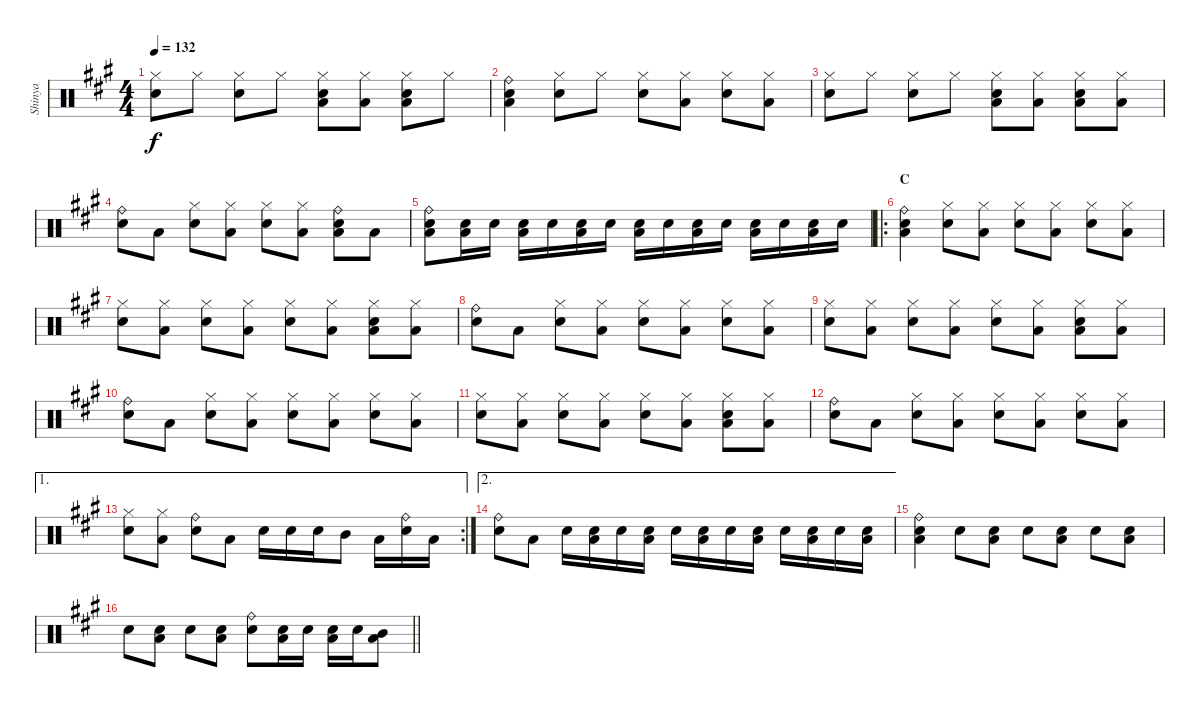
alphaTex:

\track ("Shinya" "Shinya") {instrument percussion}
\staff {score}
\articulation defaults
\ts (4 4)
\tempo 132
\clef neutral
\ks a
("Hi-Hat (closed)" "Snare (hit) 2").8{dy f} "Hi-Hat (closed)".8 ("Hi-Hat (closed)" "Snare (hit) 2").8 "Hi-Hat (closed)".8 ("Low Floor Tom (hit)" "Hi-Hat (closed)" "Snare (hit) 2").8 ("Low Floor Tom (hit)" "Hi-Hat (closed)").8 ("Low Floor Tom (hit)" "Hi-Hat (closed)" "Snare (hit) 2").8 "Hi-Hat (closed)".8 |
("Low Floor Tom (hit)" "Ride (bell)" "Snare (hit) 2").4 ("Hi-Hat (closed)" "Snare (hit) 2").8 "Hi-Hat (closed)".8 ("Hi-Hat (closed)" "Snare (hit) 2").8 ("Low Floor Tom (hit)" "Hi-Hat (closed)").8 ("Hi-Hat (closed)" "Snare (hit) 2").8 ("Low Floor Tom (hit)" "Hi-Hat (closed)").8 |
("Hi-Hat (closed)" "Snare (hit) 2").8 "Hi-Hat (closed)".8 ("Hi-Hat (closed)" "Snare (hit) 2").8 "Hi-Hat (closed)".8 ("Low Floor Tom (hit)" "Hi-Hat (closed)" "Snare (hit) 2").8 ("Low Floor Tom (hit)" "Hi-Hat (closed)").8 ("Low Floor Tom (hit)" "Hi-Hat (closed)" "Snare (hit) 2").8 ("Low Floor Tom (hit)" "Hi-Hat (closed)").8 |
("Ride (bell)" "Snare (hit) 2").8 "Low Floor Tom (hit)".8 ("Hi-Hat (closed)" "Snare (hit) 2").8 ("Low Floor Tom (hit)" "Hi-Hat (closed)").8 ("Hi-Hat (closed)" "Snare (hit) 2").8 ("Low Floor Tom (hit)" "Hi-Hat (closed)").8 ("Low Floor Tom (hit)" "Ride (bell)" "Snare (hit) 2").8 "Low Floor Tom (hit)".8 |
("Low Floor Tom (hit)" "Ride (bell)" "Snare (hit) 2").8 ("Low Floor Tom (hit)" "Snare (hit) 2").16 "Snare (hit) 2".16 ("Low Floor Tom (hit)" "Snare (hit) 2").16 "Snare (hit) 2".16 ("Low Floor Tom (hit)" "Snare (hit) 2").16 "Snare (hit) 2".16 ("Low Floor Tom (hit)" "Snare (hit) 2").16 "Snare (hit) 2".16 ("Low Floor Tom (hit)" "Snare (hit) 2").16 "Snare (hit) 2".16 ("Low Floor Tom (hit)" "Snare (hit) 2").16 "Snare (hit) 2".16 ("Low Floor Tom (hit)" "Snare (hit) 2").16 "Snare (hit) 2".16 |
\ro
\section ("" "C")
("Low Floor Tom (hit)" "Ride (bell)" "Snare (hit) 2").4 ("Hi-Hat (closed)" "Snare (hit) 2").8 ("Low Floor Tom (hit)" "Hi-Hat (closed)").8 ("Hi-Hat (closed)" "Snare (hit) 2").8 ("Low Floor Tom (hit)" "Hi-Hat (closed)").8 ("Hi-Hat (closed)" "Snare (hit) 2").8 ("Low Floor Tom (hit)" "Hi-Hat (closed)").8 |
("Hi-Hat (closed)" "Snare (hit) 2").8 ("Low Floor Tom (hit)" "Hi-Hat (closed)").8 ("Hi-Hat (closed)" "Snare (hit) 2").8 ("Low Floor Tom (hit)" "Hi-Hat (closed)").8 ("Hi-Hat (closed)" "Snare (hit) 2").8 ("Low Floor Tom (hit)" "Hi-Hat (closed)").8 ("Low Floor Tom (hit)" "Hi-Hat (closed)" "Snare (hit) 2").8 ("Low Floor Tom (hit)" "Hi-Hat (closed)").8 |
("Ride (bell)" "Snare (hit) 2").8 "Low Floor Tom (hit)".8 ("Hi-Hat (closed)" "Snare (hit) 2").8 ("Low Floor Tom (hit)" "Hi-Hat (closed)").8 ("Hi-Hat (closed)" "Snare (hit) 2").8 ("Low Floor Tom (hit)" "Hi-Hat (closed)").8 ("Hi-Hat (closed)" "Snare (hit) 2").8 ("Low Floor Tom (hit)" "Hi-Hat (closed)").8 |
("Hi-Hat (closed)" "Snare (hit) 2").8 ("Low Floor Tom (hit)" "Hi-Hat (closed)").8 ("Hi-Hat (closed)" "Snare (hit) 2").8 ("Low Floor Tom (hit)" "Hi-Hat (closed)").8 ("Hi-Hat (closed)" "Snare (hit) 2").8 ("Low Floor Tom (hit)" "Hi-Hat (closed)").8 ("Low Floor Tom (hit)" "Hi-Hat (closed)" "Snare (hit) 2").8 ("Low Floor Tom (hit)" "Hi-Hat (closed)").8 |
("Ride (bell)" "Snare (hit) 2").8 "Low Floor Tom (hit)".8 ("Hi-Hat (closed)" "Snare (hit) 2").8 ("Low Floor Tom (hit)" "Hi-Hat (closed)").8 ("Hi-Hat (closed)" "Snare (hit) 2").8 ("Low Floor Tom (hit)" "Hi-Hat (closed)").8 ("Hi-Hat (closed)" "Snare (hit) 2").8 ("Low Floor Tom (hit)" "Hi-Hat (closed)").8 |
("Hi-Hat (closed)" "Snare (hit) 2").8 ("Low Floor Tom (hit)" "Hi-Hat (closed)").8 ("Hi-Hat (closed)" "Snare (hit) 2").8 ("Low Floor Tom (hit)" "Hi-Hat (closed)").8 ("Hi-Hat (closed)" "Snare (hit) 2").8 ("Low Floor Tom (hit)" "Hi-Hat (closed)").8 ("Low Floor Tom (hit)" "Hi-Hat (closed)" "Snare (hit) 2").8 ("Low Floor Tom (hit)" "Hi-Hat (closed)").8 |
("Ride (bell)" "Snare (hit) 2").8 "Low Floor Tom (hit)".8 ("Hi-Hat (closed)" "Snare (hit) 2").8 ("Low Floor Tom (hit)" "Hi-Hat (closed)").8 ("Hi-Hat (closed)" "Snare (hit) 2").8 ("Low Floor Tom (hit)" "Hi-Hat (closed)").8 ("Hi-Hat (closed)" "Snare (hit) 2").8 ("Low Floor Tom (hit)" "Hi-Hat (closed)").8 |
\ae 1
\rc 2
("Hi-Hat (closed)" "Snare (hit) 2").8 ("Low Floor Tom (hit)" "Hi-Hat (closed)").8 ("Ride (bell)" "Snare (hit) 2").8 "Low Floor Tom (hit)".8 "Snare (hit) 2".16 "Snare (hit) 2".16 "Snare (hit) 2".16 "Mid Tom (hit)".8 "Low Floor Tom (hit)".16 ("Ride (bell)" "Snare (hit) 2").16 "Low Floor Tom (hit)".16 |
\ae 2
("Ride (bell)" "Snare (hit) 2").8 "Low Floor Tom (hit)".8 "Snare (hit) 2".16 ("Low Floor Tom (hit)" "Snare (hit) 2").16 "Snare (hit) 2".16 ("Low Floor Tom (hit)" "Snare (hit) 2").16 "Snare (hit) 2".16 ("Low Floor Tom (hit)" "Snare (hit) 2").16 "Snare (hit) 2".16 ("Low Floor Tom (hit)" "Snare (hit) 2").16 "Snare (hit) 2".16 ("Low Floor Tom (hit)" "Snare (hit) 2").16 "Snare (hit) 2".16 ("Low Floor Tom (hit)" "Snare (hit) 2").16 |
("Low Floor Tom (hit)" "Ride (bell)" "Snare (hit) 2").4 "Snare (hit) 2".8 ("Low Floor Tom (hit)" "Snare (hit) 2").8 "Snare (hit) 2".8 ("Low Floor Tom (hit)" "Snare (hit) 2").8 "Snare (hit) 2".8 ("Low Floor Tom (hit)" "Snare (hit) 2").8 |
\barLineRight lightlight "Snare (hit) 2".8
("Low Floor Tom (hit)" "Snare (hit) 2").8 "Snare (hit) 2".8 ("Low Floor Tom (hit)" "Snare (hit) 2").8 ("Ride (bell)" "Snare (hit) 2").8 ("Low Floor Tom (hit)" "Snare (hit) 2").16 "Snare (hit) 2".16 ("Low Floor Tom (hit)" "Snare (hit) 2").16 "Snare (hit) 2".16 ("Low Floor Tom (hit)" "Mid Tom (hit)").8
